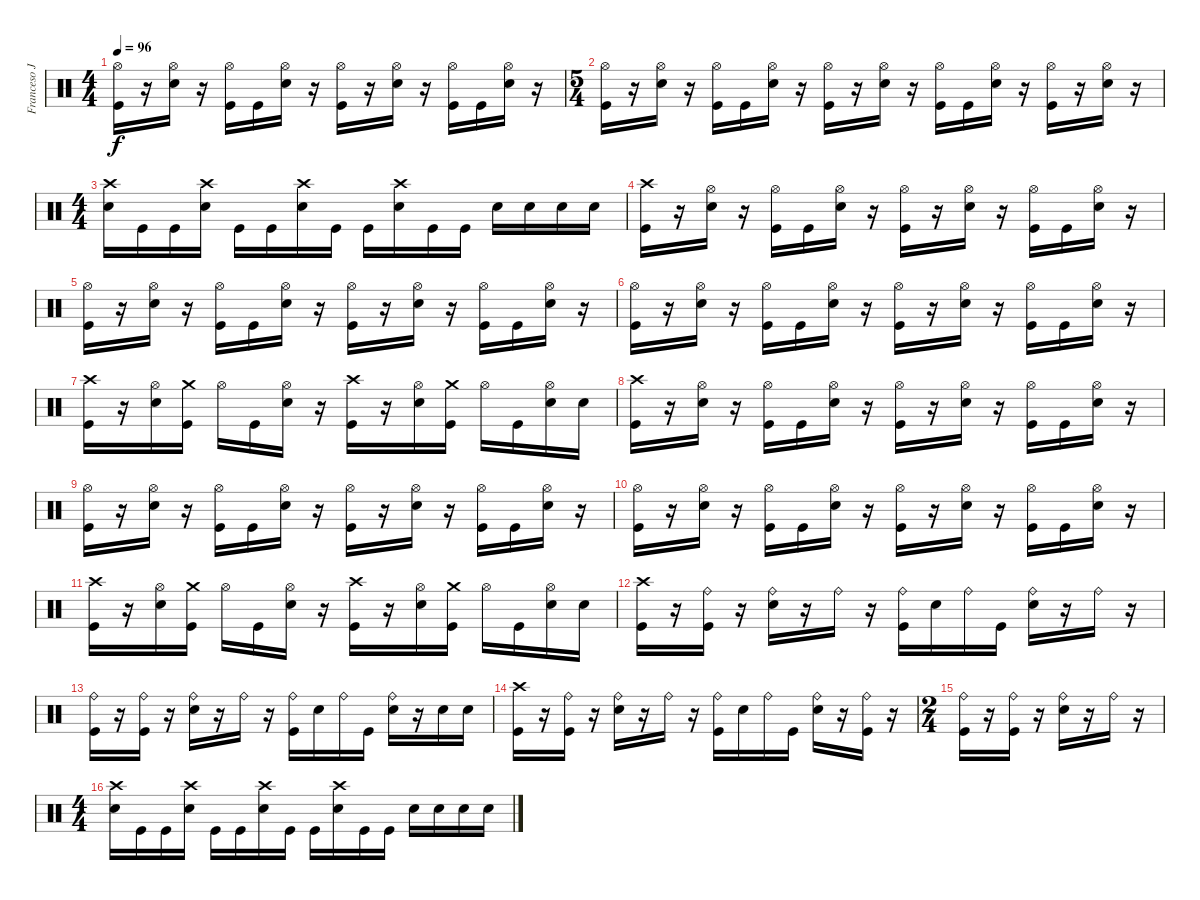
\track ("Franceso Jovino" "Franceso J") {instrument percussion}
\staff {score}
\articulation defaults
\ts (4 4)
\tempo 96
\clef neutral
\ks c
("Kick (hit)" "Hi-Hat (open)").16{dy f} r.16 ("Snare (hit) 2" "Hi-Hat (open)").16 r.16 ("Hi-Hat (open)" "Kick (hit)").16 "Kick (hit)".16 ("Snare (hit) 2" "Hi-Hat (open)").16 r.16 ("Kick (hit)" "Hi-Hat (open)").16 r.16 ("Snare (hit) 2" "Hi-Hat (open)").16 r.16 ("Hi-Hat (open)" "Kick (hit)").16 "Kick (hit)".16 ("Snare (hit) 2" "Hi-Hat (open)").16 r.16 |
\ts (5 4)
("Kick (hit)" "Hi-Hat (open)").16 r.16 ("Snare (hit) 2" "Hi-Hat (open)").16 r.16 ("Hi-Hat (open)" "Kick (hit)").16 "Kick (hit)".16 ("Snare (hit) 2" "Hi-Hat (open)").16 r.16 ("Kick (hit)" "Hi-Hat (open)").16 r.16 ("Snare (hit) 2" "Hi-Hat (open)").16 r.16 ("Hi-Hat (open)" "Kick (hit)").16 "Kick (hit)".16 ("Snare (hit) 2" "Hi-Hat (open)").16 r.16 ("Kick (hit)" "Hi-Hat (open)").16 r.16 ("Snare (hit) 2" "Hi-Hat (open)").16 r.16 |
\ts (4 4)
("Snare (hit) 2" "Crash high (hit)").16 "Kick (hit)".16 "Kick (hit)".16 ("Snare (hit) 2" "Crash high (hit)").16 "Kick (hit)".16 "Kick (hit)".16 ("Snare (hit) 2" "Crash high (hit)").16 "Kick (hit)".16 "Kick (hit)".16 ("Snare (hit) 2" "Crash high (hit)").16 "Kick (hit)".16 "Kick (hit)".16 "Snare (hit) 2".16 "Snare (hit) 2".16 "Snare (hit) 2".16 "Snare (hit) 2".16 |
("Kick (hit)" "Crash high (hit)").16 r.16 ("Snare (hit) 2" "Hi-Hat (open)").16 r.16 ("Hi-Hat (open)" "Kick (hit)").16 "Kick (hit)".16 ("Snare (hit) 2" "Hi-Hat (open)").16 r.16 ("Kick (hit)" "Hi-Hat (open)").16 r.16 ("Snare (hit) 2" "Hi-Hat (open)").16 r.16 ("Hi-Hat (open)" "Kick (hit)").16 "Kick (hit)".16 ("Snare (hit) 2" "Hi-Hat (open)").16 r.16 |
("Kick (hit)" "Hi-Hat (open)").16 r.16 ("Snare (hit) 2" "Hi-Hat (open)").16 r.16 ("Hi-Hat (open)" "Kick (hit)").16 "Kick (hit)".16 ("Snare (hit) 2" "Hi-Hat (open)").16 r.16 ("Kick (hit)" "Hi-Hat (open)").16 r.16 ("Snare (hit) 2" "Hi-Hat (open)").16 r.16 ("Hi-Hat (open)" "Kick (hit)").16 "Kick (hit)".16 ("Snare (hit) 2" "Hi-Hat (open)").16 r.16 |
("Kick (hit)" "Hi-Hat (open)").16 r.16 ("Snare (hit) 2" "Hi-Hat (open)").16 r.16 ("Hi-Hat (open)" "Kick (hit)").16 "Kick (hit)".16 ("Snare (hit) 2" "Hi-Hat (open)").16 r.16 ("Kick (hit)" "Hi-Hat (open)").16 r.16 ("Snare (hit) 2" "Hi-Hat (open)").16 r.16 ("Hi-Hat (open)" "Kick (hit)").16 "Kick (hit)".16 ("Snare (hit) 2" "Hi-Hat (open)").16 r.16 |
("Kick (hit)" "Crash high (hit)").16 r.16 ("Snare (hit) 2" "Hi-Hat (open)").16 ("Kick (hit)" "Crash medium (hit)").16 "Hi-Hat (open)".16 "Kick (hit)".16 ("Snare (hit) 2" "Hi-Hat (open)").16 r.16 ("Kick (hit)" "Crash high (hit)").16 r.16 ("Snare (hit) 2" "Hi-Hat (open)").16 ("Kick (hit)" "Crash medium (hit)").16 "Hi-Hat (open)".16 "Kick (hit)".16 ("Snare (hit) 2" "Hi-Hat (open)").16 "Snare (hit) 2".16 |
("Kick (hit)" "Crash high (hit)").16 r.16 ("Snare (hit) 2" "Hi-Hat (open)").16 r.16 ("Hi-Hat (open)" "Kick (hit)").16 "Kick (hit)".16 ("Snare (hit) 2" "Hi-Hat (open)").16 r.16 ("Kick (hit)" "Hi-Hat (open)").16 r.16 ("Snare (hit) 2" "Hi-Hat (open)").16 r.16 ("Hi-Hat (open)" "Kick (hit)").16 "Kick (hit)".16 ("Snare (hit) 2" "Hi-Hat (open)").16 r.16 |
("Kick (hit)" "Hi-Hat (open)").16 r.16 ("Snare (hit) 2" "Hi-Hat (open)").16 r.16 ("Hi-Hat (open)" "Kick (hit)").16 "Kick (hit)".16 ("Snare (hit) 2" "Hi-Hat (open)").16 r.16 ("Kick (hit)" "Hi-Hat (open)").16 r.16 ("Snare (hit) 2" "Hi-Hat (open)").16 r.16 ("Hi-Hat (open)" "Kick (hit)").16 "Kick (hit)".16 ("Snare (hit) 2" "Hi-Hat (open)").16 r.16 |
("Kick (hit)" "Hi-Hat (open)").16 r.16 ("Snare (hit) 2" "Hi-Hat (open)").16 r.16 ("Hi-Hat (open)" "Kick (hit)").16 "Kick (hit)".16 ("Snare (hit) 2" "Hi-Hat (open)").16 r.16 ("Kick (hit)" "Hi-Hat (open)").16 r.16 ("Snare (hit) 2" "Hi-Hat (open)").16 r.16 ("Hi-Hat (open)" "Kick (hit)").16 "Kick (hit)".16 ("Snare (hit) 2" "Hi-Hat (open)").16 r.16 |
("Kick (hit)" "Crash high (hit)").16 r.16 ("Snare (hit) 2" "Hi-Hat (open)").16 ("Kick (hit)" "Crash medium (hit)").16 "Hi-Hat (open)".16 "Kick (hit)".16 ("Snare (hit) 2" "Hi-Hat (open)").16 r.16 ("Kick (hit)" "Crash high (hit)").16 r.16 ("Snare (hit) 2" "Hi-Hat (open)").16 ("Kick (hit)" "Crash medium (hit)").16 "Hi-Hat (open)".16 "Kick (hit)".16 ("Snare (hit) 2" "Hi-Hat (open)").16 "Snare (hit) 2".16 |
("Kick (hit)" "Crash high (hit)").16 r.16 ("Kick (hit)" "Ride (bell)").16 r.16 ("Ride (bell)" "Snare (hit) 2").16 r.16 "Ride (bell)".16 r.16 ("Kick (hit)" "Ride (bell)").16 "Snare (hit) 2".16 "Ride (bell)".16 "Kick (hit)".16 ("Ride (bell)" "Snare (hit) 2").16 r.16 "Ride (bell)".16 r.16 |
("Kick (hit)" "Ride (bell)").16 r.16 ("Kick (hit)" "Ride (bell)").16 r.16 ("Ride (bell)" "Snare (hit) 2").16 r.16 "Ride (bell)".16 r.16 ("Kick (hit)" "Ride (bell)").16 "Snare (hit) 2".16 "Ride (bell)".16 "Kick (hit)".16 ("Ride (bell)" "Snare (hit) 2").16 r.16 "Snare (hit) 2".16 "Snare (hit) 2".16 |
("Kick (hit)" "Crash high (hit)").16 r.16 ("Kick (hit)" "Ride (bell)").16 r.16 ("Ride (bell)" "Snare (hit) 2").16 r.16 "Ride (bell)".16 r.16 ("Kick (hit)" "Ride (bell)").16 "Snare (hit) 2".16 "Ride (bell)".16 "Kick (hit)".16 ("Ride (bell)" "Snare (hit) 2").16 r.16 ("Ride (bell)" "Kick (hit)").16 r.16 |
\ts (2 4)
("Kick (hit)" "Ride (bell)").16 r.16 ("Kick (hit)" "Ride (bell)").16 r.16 ("Ride (bell)" "Snare (hit) 2").16 r.16 "Ride (bell)".16 r.16 |
\ts (4 4)
("Snare (hit) 2" "Crash high (hit)").16 "Kick (hit)".16 "Kick (hit)".16 ("Snare (hit) 2" "Crash high (hit)").16 "Kick (hit)".16 "Kick (hit)".16 ("Snare (hit) 2" "Crash high (hit)").16 "Kick (hit)".16 "Kick (hit)".16 ("Snare (hit) 2" "Crash high (hit)").16 "Kick (hit)".16 "Kick (hit)".16 "Snare (hit) 2".16 "Snare (hit) 2".16 "Snare (hit) 2".16 "Snare (hit) 2".16
